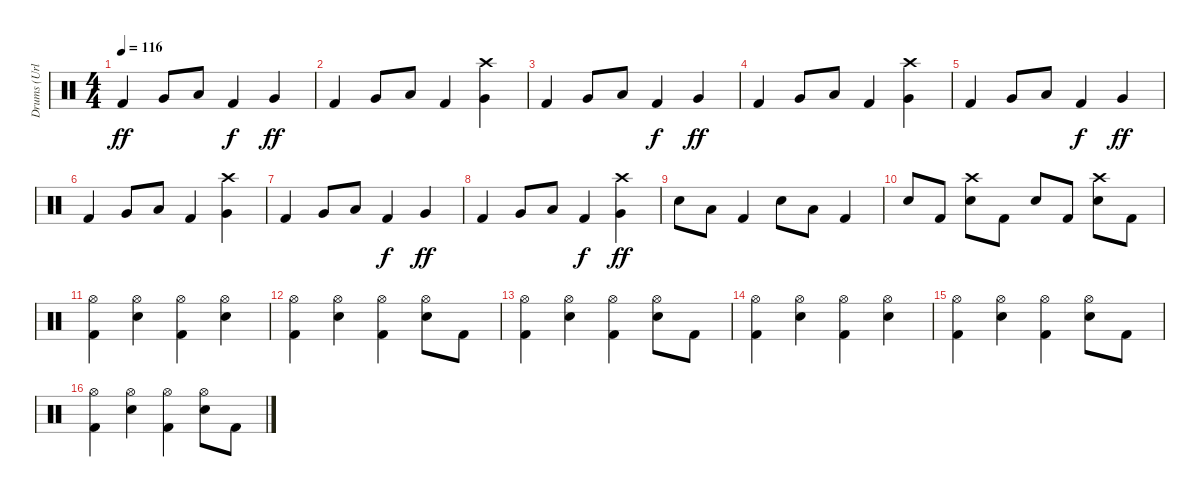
\track ("Drums (Urlich)" "Drums (Url") {instrument percussion}
\staff {score}
\articulation defaults
\ts (4 4)
\tempo 116
\clef neutral
\ks c "Kick (hit) 2".4{dy ff} "Very Low Tom (hit)".8 "Low Floor Tom (hit)".8 "Kick (hit) 2".4{dy f} "Very Low Tom (hit)".4{dy ff}
|
"Kick (hit) 2".4 "Very Low Tom (hit)".8 "Low Floor Tom (hit)".8 "Kick (hit) 2".4 ("Very Low Tom (hit)" "Crash high (hit)").4 |
"Kick (hit) 2".4 "Very Low Tom (hit)".8 "Low Floor Tom (hit)".8 "Kick (hit) 2".4{dy f} "Very Low Tom (hit)".4{dy ff} |
"Kick (hit) 2".4 "Very Low Tom (hit)".8 "Low Floor Tom (hit)".8 "Kick (hit) 2".4 ("Very Low Tom (hit)" "Crash high (hit)").4 |
"Kick (hit) 2".4 "Very Low Tom (hit)".8 "Low Floor Tom (hit)".8 "Kick (hit) 2".4{dy f} "Very Low Tom (hit)".4{dy ff} |
"Kick (hit) 2".4 "Very Low Tom (hit)".8 "Low Floor Tom (hit)".8 "Kick (hit) 2".4 ("Very Low Tom (hit)" "Crash high (hit)").4 |
"Kick (hit) 2".4 "Very Low Tom (hit)".8 "Low Floor Tom (hit)".8 "Kick (hit) 2".4{dy f} "Very Low Tom (hit)".4{dy ff} |
"Kick (hit) 2".4 "Very Low Tom (hit)".8 "Low Floor Tom (hit)".8 "Kick (hit) 2".4{dy f} ("Very Low Tom (hit)" "Crash high (hit)").4{dy ff} |
"Snare (hit) 2".8 "Low Floor Tom (hit)".8 "Kick (hit) 2".4 "Snare (hit) 2".8 "Low Floor Tom (hit)".8 "Kick (hit) 2".4 |
"Snare (hit) 2".8 "Kick (hit) 2".8 ("Snare (hit) 2" "Crash high (hit)").8 "Kick (hit) 2".8 "Snare (hit) 2".8 "Kick (hit) 2".8 ("Snare (hit) 2" "Crash high (hit)").8 "Kick (hit) 2".8 |
("Kick (hit) 2" "Hi-Hat (open)").4 ("Snare (hit) 2" "Hi-Hat (open)").4 ("Kick (hit) 2" "Hi-Hat (open)").4 ("Snare (hit) 2" "Hi-Hat (open)").4 |
("Kick (hit) 2" "Hi-Hat (open)").4 ("Snare (hit) 2" "Hi-Hat (open)").4 ("Kick (hit) 2" "Hi-Hat (open)").4 ("Snare (hit) 2" "Hi-Hat (open)").8 "Kick (hit) 2".8 |
("Kick (hit) 2" "Hi-Hat (open)").4 ("Snare (hit) 2" "Hi-Hat (open)").4 ("Kick (hit) 2" "Hi-Hat (open)").4 ("Snare (hit) 2" "Hi-Hat (open)").8 "Kick (hit) 2".8 |
("Kick (hit) 2" "Hi-Hat (open)").4 ("Snare (hit) 2" "Hi-Hat (open)").4 ("Kick (hit) 2" "Hi-Hat (open)").4 ("Snare (hit) 2" "Hi-Hat (open)").4 |
("Kick (hit) 2" "Hi-Hat (open)").4 ("Snare (hit) 2" "Hi-Hat (open)").4 ("Kick (hit) 2" "Hi-Hat (open)").4 ("Snare (hit) 2" "Hi-Hat (open)").8 "Kick (hit) 2".8 |
("Kick (hit) 2" "Hi-Hat (open)").4 ("Snare (hit) 2" "Hi-Hat (open)").4 ("Kick (hit) 2" "Hi-Hat (open)").4 ("Snare (hit) 2" "Hi-Hat (open)").8 "Kick (hit) 2".8
